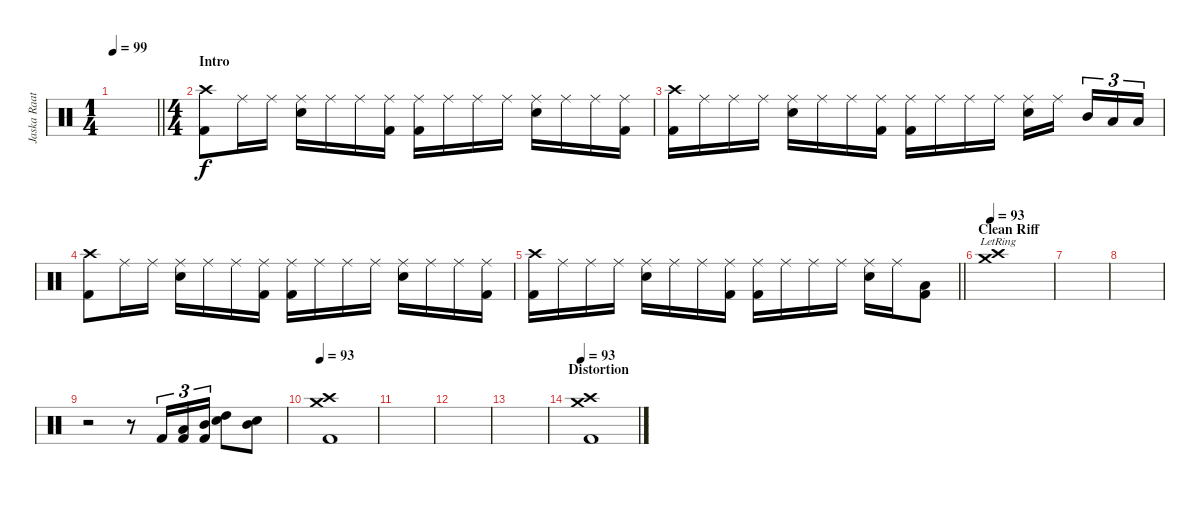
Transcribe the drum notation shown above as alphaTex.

\track ("Jaska Raatikainen" "Jaska Raat") {instrument percussion}
\staff {score}
\articulation defaults
\ts (1 4)
\tempo 99
\clef neutral
\barLineRight lightlight
\ks c
|
\ts (4 4)
\section ("" "Intro")
("Crash high (hit)" "Kick (hit) 2").8 "Ride (middle)".16 "Ride (middle)".16 ("Ride (middle)" "Snare (hit) 2").16 "Ride (middle)".16 "Ride (middle)".16 ("Ride (middle)" "Kick (hit) 2").16 ("Ride (middle)" "Kick (hit) 2").16 "Ride (middle)".16 "Ride (middle)".16 "Ride (middle)".16 ("Ride (middle)" "Snare (hit) 2").16 "Ride (middle)".16 "Ride (middle)".16 ("Ride (middle)" "Kick (hit) 2").16 |
("Crash high (hit)" "Kick (hit) 2").16 "Ride (middle)".16 "Ride (middle)".16 "Ride (middle)".16 ("Ride (middle)" "Snare (hit) 2").16 "Ride (middle)".16 "Ride (middle)".16 ("Ride (middle)" "Kick (hit) 2").16 ("Ride (middle)" "Kick (hit) 2").16 "Ride (middle)".16 "Ride (middle)".16 "Ride (middle)".16 ("Ride (middle)" "Snare (hit) 2").16 "Ride (middle)".16 "Mid Tom (hit)".16{tu (3 2)} "Low Tom (hit)".16{tu (3 2)} "Low Tom (hit)".16{tu (3 2)} |
("Crash high (hit)" "Kick (hit) 2").8 "Ride (middle)".16 "Ride (middle)".16 ("Ride (middle)" "Snare (hit) 2").16 "Ride (middle)".16 "Ride (middle)".16 ("Ride (middle)" "Kick (hit) 2").16 ("Ride (middle)" "Kick (hit) 2").16 "Ride (middle)".16 "Ride (middle)".16 "Ride (middle)".16 ("Ride (middle)" "Snare (hit) 2").16 "Ride (middle)".16 "Ride (middle)".16 ("Ride (middle)" "Kick (hit) 2").16 |
\barLineRight lightlight
("Crash high (hit)" "Kick (hit) 2").16 "Ride (middle)".16 "Ride (middle)".16 "Ride (middle)".16 ("Ride (middle)" "Snare (hit) 2").16 "Ride (middle)".16 "Ride (middle)".16 ("Ride (middle)" "Kick (hit) 2").16 ("Ride (middle)" "Kick (hit) 2").16 "Ride (middle)".16 "Ride (middle)".16 "Ride (middle)".16 ("Ride (middle)" "Snare (hit) 2").16 "Ride (middle)".16 ("Low Tom (hit)" "Kick (hit) 2").8 |
\section ("" "Clean Riff")
\tempo 93
("Crash high (hit)"{lr} "Crash medium (hit)"{lr}).1 |
|
|
r.2 r.8 "Kick (hit) 2".16{tu (3 2)} ("Low Tom (hit)" "Kick (hit) 2").16{tu (3 2)} ("Mid Tom (hit)" "Kick (hit) 2").16{tu (3 2)} ("High Tom (hit)" "Snare (hit) 2").8 ("Mid Tom (hit)" "Snare (hit) 2").8 |
\tempo 93
("Crash high (hit)" "Crash medium (hit)" "Kick (hit) 2").1 |
|
|
|
\section ("" "Distortion")
\tempo 93
("Crash high (hit)" "Crash medium (hit)" "Kick (hit) 2").1
